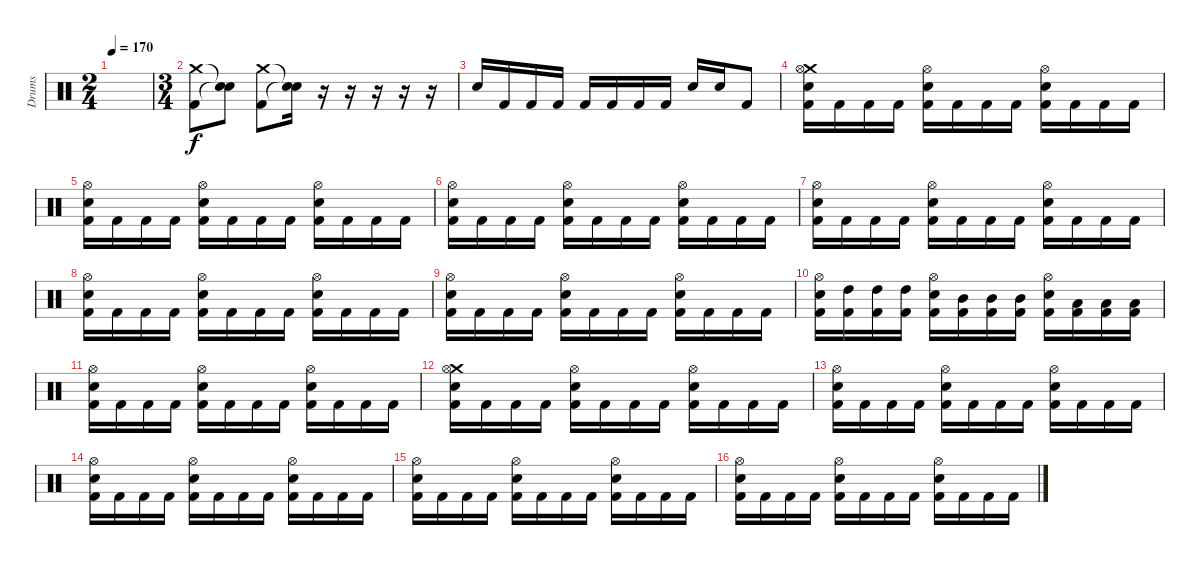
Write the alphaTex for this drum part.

\track ("Drums" "Drums") {instrument percussion}
\staff {score}
\articulation defaults
\ts (2 4)
\tempo 170
\clef neutral
\ks c
|
\ts (3 4)
("Crash medium (hit)" "Kick (hit) 2").8 ("Snare (hit)"{t} "Snare (hit)"{t}).8 ("Crash medium (hit)" "Kick (hit) 2").8 ("Snare (hit)"{t} "Snare (hit)"{t}).16 r.16 r.16 r.16 r.16 r.16 |
"Electric Snare (hit)".16 "Kick (hit) 2".16 "Kick (hit) 2".16 "Kick (hit) 2".16 "Kick (hit) 2".16 "Kick (hit) 2".16 "Kick (hit) 2".16 "Kick (hit) 2".16 "Electric Snare (hit)".16 "Electric Snare (hit)".16 "Kick (hit) 2".8 |
("Crash medium (hit)" "Hi-Hat (open)" "Electric Snare (hit)" "Kick (hit) 2").16 "Kick (hit) 2".16 "Kick (hit) 2".16 "Kick (hit) 2".16 ("Hi-Hat (open)" "Electric Snare (hit)" "Kick (hit) 2").16 "Kick (hit) 2".16 "Kick (hit) 2".16 "Kick (hit) 2".16 ("Hi-Hat (open)" "Electric Snare (hit)" "Kick (hit) 2").16 "Kick (hit) 2".16 "Kick (hit) 2".16 "Kick (hit) 2".16 |
("Hi-Hat (open)" "Electric Snare (hit)" "Kick (hit) 2").16 "Kick (hit) 2".16 "Kick (hit) 2".16 "Kick (hit) 2".16 ("Hi-Hat (open)" "Electric Snare (hit)" "Kick (hit) 2").16 "Kick (hit) 2".16 "Kick (hit) 2".16 "Kick (hit) 2".16 ("Hi-Hat (open)" "Electric Snare (hit)" "Kick (hit) 2").16 "Kick (hit) 2".16 "Kick (hit) 2".16 "Kick (hit) 2".16 |
("Hi-Hat (open)" "Electric Snare (hit)" "Kick (hit) 2").16 "Kick (hit) 2".16 "Kick (hit) 2".16 "Kick (hit) 2".16 ("Hi-Hat (open)" "Electric Snare (hit)" "Kick (hit) 2").16 "Kick (hit) 2".16 "Kick (hit) 2".16 "Kick (hit) 2".16 ("Hi-Hat (open)" "Electric Snare (hit)" "Kick (hit) 2").16 "Kick (hit) 2".16 "Kick (hit) 2".16 "Kick (hit) 2".16 |
("Hi-Hat (open)" "Electric Snare (hit)" "Kick (hit) 2").16 "Kick (hit) 2".16 "Kick (hit) 2".16 "Kick (hit) 2".16 ("Hi-Hat (open)" "Electric Snare (hit)" "Kick (hit) 2").16 "Kick (hit) 2".16 "Kick (hit) 2".16 "Kick (hit) 2".16 ("Hi-Hat (open)" "Electric Snare (hit)" "Kick (hit) 2").16 "Kick (hit) 2".16 "Kick (hit) 2".16 "Kick (hit) 2".16 |
("Hi-Hat (open)" "Electric Snare (hit)" "Kick (hit) 2").16 "Kick (hit) 2".16 "Kick (hit) 2".16 "Kick (hit) 2".16 ("Hi-Hat (open)" "Electric Snare (hit)" "Kick (hit) 2").16 "Kick (hit) 2".16 "Kick (hit) 2".16 "Kick (hit) 2".16 ("Hi-Hat (open)" "Electric Snare (hit)" "Kick (hit) 2").16 "Kick (hit) 2".16 "Kick (hit) 2".16 "Kick (hit) 2".16 |
("Hi-Hat (open)" "Electric Snare (hit)" "Kick (hit) 2").16 "Kick (hit) 2".16 "Kick (hit) 2".16 "Kick (hit) 2".16 ("Hi-Hat (open)" "Electric Snare (hit)" "Kick (hit) 2").16 "Kick (hit) 2".16 "Kick (hit) 2".16 "Kick (hit) 2".16 ("Hi-Hat (open)" "Electric Snare (hit)" "Kick (hit) 2").16 "Kick (hit) 2".16 "Kick (hit) 2".16 "Kick (hit) 2".16 |
("Hi-Hat (open)" "Electric Snare (hit)" "Kick (hit) 2").16 ("High Tom (hit)" "Kick (hit) 2").16 ("High Tom (hit)" "Kick (hit) 2").16 ("High Tom (hit)" "Kick (hit) 2").16 ("Hi-Hat (open)" "Electric Snare (hit)" "Kick (hit) 2").16 ("Mid Tom (hit)" "Kick (hit) 2").16 ("Mid Tom (hit)" "Kick (hit) 2").16 ("Mid Tom (hit)" "Kick (hit) 2").16 ("Hi-Hat (open)" "Electric Snare (hit)" "Kick (hit) 2").16 ("Low Tom (hit)" "Kick (hit) 2").16 ("Low Tom (hit)" "Kick (hit) 2").16 ("Low Tom (hit)" "Kick (hit) 2").16 |
("Hi-Hat (open)" "Electric Snare (hit)" "Kick (hit) 2").16 "Kick (hit) 2".16 "Kick (hit) 2".16 "Kick (hit) 2".16 ("Hi-Hat (open)" "Electric Snare (hit)" "Kick (hit) 2").16 "Kick (hit) 2".16 "Kick (hit) 2".16 "Kick (hit) 2".16 ("Hi-Hat (open)" "Electric Snare (hit)" "Kick (hit) 2").16 "Kick (hit) 2".16 "Kick (hit) 2".16 "Kick (hit) 2".16 |
("Crash medium (hit)" "Hi-Hat (open)" "Electric Snare (hit)" "Kick (hit) 2").16 "Kick (hit) 2".16 "Kick (hit) 2".16 "Kick (hit) 2".16 ("Hi-Hat (open)" "Electric Snare (hit)" "Kick (hit) 2").16 "Kick (hit) 2".16 "Kick (hit) 2".16 "Kick (hit) 2".16 ("Hi-Hat (open)" "Electric Snare (hit)" "Kick (hit) 2").16 "Kick (hit) 2".16 "Kick (hit) 2".16 "Kick (hit) 2".16 |
("Hi-Hat (open)" "Electric Snare (hit)" "Kick (hit) 2").16 "Kick (hit) 2".16 "Kick (hit) 2".16 "Kick (hit) 2".16 ("Hi-Hat (open)" "Electric Snare (hit)" "Kick (hit) 2").16 "Kick (hit) 2".16 "Kick (hit) 2".16 "Kick (hit) 2".16 ("Hi-Hat (open)" "Electric Snare (hit)" "Kick (hit) 2").16 "Kick (hit) 2".16 "Kick (hit) 2".16 "Kick (hit) 2".16 |
("Hi-Hat (open)" "Electric Snare (hit)" "Kick (hit) 2").16 "Kick (hit) 2".16 "Kick (hit) 2".16 "Kick (hit) 2".16 ("Hi-Hat (open)" "Electric Snare (hit)" "Kick (hit) 2").16 "Kick (hit) 2".16 "Kick (hit) 2".16 "Kick (hit) 2".16 ("Hi-Hat (open)" "Electric Snare (hit)" "Kick (hit) 2").16 "Kick (hit) 2".16 "Kick (hit) 2".16 "Kick (hit) 2".16 |
("Hi-Hat (open)" "Electric Snare (hit)" "Kick (hit) 2").16 "Kick (hit) 2".16 "Kick (hit) 2".16 "Kick (hit) 2".16 ("Hi-Hat (open)" "Electric Snare (hit)" "Kick (hit) 2").16 "Kick (hit) 2".16 "Kick (hit) 2".16 "Kick (hit) 2".16 ("Hi-Hat (open)" "Electric Snare (hit)" "Kick (hit) 2").16 "Kick (hit) 2".16 "Kick (hit) 2".16 "Kick (hit) 2".16 |
("Hi-Hat (open)" "Electric Snare (hit)" "Kick (hit) 2").16 "Kick (hit) 2".16 "Kick (hit) 2".16 "Kick (hit) 2".16 ("Hi-Hat (open)" "Electric Snare (hit)" "Kick (hit) 2").16 "Kick (hit) 2".16 "Kick (hit) 2".16 "Kick (hit) 2".16 ("Hi-Hat (open)" "Electric Snare (hit)" "Kick (hit) 2").16 "Kick (hit) 2".16 "Kick (hit) 2".16 "Kick (hit) 2".16
